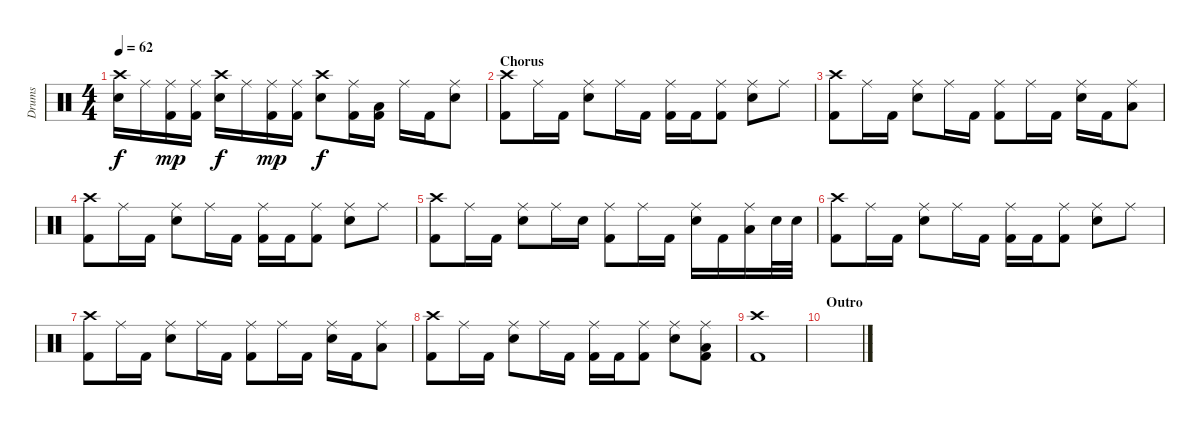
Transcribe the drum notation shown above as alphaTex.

\track ("Drums" "Drums") {instrument percussion}
\staff {score}
\articulation defaults
\ts (4 4)
\tempo 62
\clef neutral
\ks c
("Crash high (hit)" "Snare (hit) 2").16{dy f} "Ride (middle)".16 ("Ride (middle)" "Kick (hit) 2").16{dy mp} ("Ride (middle)" "Kick (hit) 2").16 ("Crash high (hit)" "Snare (hit) 2").16{dy f} "Ride (middle)".16 ("Ride (middle)" "Kick (hit) 2").16{dy mp} ("Ride (middle)" "Kick (hit) 2").16 ("Crash high (hit)" "Snare (hit) 2").8{dy f} ("Ride (middle)" "Kick (hit) 2").16 ("Low Floor Tom (hit)" "Kick (hit) 2").16 "Ride (middle)".16 "Kick (hit) 2".16 ("Ride (middle)" "Snare (hit) 2").8 |
\section ("" "Chorus")
("Crash high (hit)" "Kick (hit) 2").8 "Ride (middle)".16 "Kick (hit) 2".16 ("Ride (middle)" "Snare (hit) 2").8 "Ride (middle)".16 "Kick (hit) 2".16 ("Ride (middle)" "Kick (hit) 2").16 "Kick (hit) 2".16 ("Ride (middle)" "Kick (hit) 2").8 ("Ride (middle)" "Snare (hit) 2").8 "Ride (middle)".8 |
("Crash high (hit)" "Kick (hit) 2").8 "Ride (middle)".16 "Kick (hit) 2".16 ("Ride (middle)" "Snare (hit) 2").8 "Ride (middle)".16 "Kick (hit) 2".16 ("Ride (middle)" "Kick (hit) 2").8 "Ride (middle)".16 "Kick (hit) 2".16 ("Ride (middle)" "Snare (hit) 2").16 "Kick (hit) 2".16 ("Ride (middle)" "Low Floor Tom (hit)").8 |
("Crash high (hit)" "Kick (hit) 2").8 "Ride (middle)".16 "Kick (hit) 2".16 ("Ride (middle)" "Snare (hit) 2").8 "Ride (middle)".16 "Kick (hit) 2".16 ("Ride (middle)" "Kick (hit) 2").16 "Kick (hit) 2".16 ("Ride (middle)" "Kick (hit) 2").8 ("Ride (middle)" "Snare (hit) 2").8 "Ride (middle)".8 |
("Crash high (hit)" "Kick (hit) 2").8 "Ride (middle)".16 "Kick (hit) 2".16 ("Ride (middle)" "Snare (hit) 2").8 "Ride (middle)".16 "Snare (hit) 2".16 ("Ride (middle)" "Kick (hit) 2").8 "Ride (middle)".16 "Kick (hit) 2".16 ("Ride (middle)" "Snare (hit) 2").16 "Kick (hit) 2".16 ("Ride (middle)" "Low Floor Tom (hit)").16 "Snare (hit) 2".32 "Snare (hit) 2".32 |
("Crash high (hit)" "Kick (hit) 2").8 "Ride (middle)".16 "Kick (hit) 2".16 ("Ride (middle)" "Snare (hit) 2").8 "Ride (middle)".16 "Kick (hit) 2".16 ("Ride (middle)" "Kick (hit) 2").16 "Kick (hit) 2".16 ("Ride (middle)" "Kick (hit) 2").8 ("Ride (middle)" "Snare (hit) 2").8 "Ride (middle)".8 |
("Crash high (hit)" "Kick (hit) 2").8 "Ride (middle)".16 "Kick (hit) 2".16 ("Ride (middle)" "Snare (hit) 2").8 "Ride (middle)".16 "Kick (hit) 2".16 ("Ride (middle)" "Kick (hit) 2").8 "Ride (middle)".16 "Kick (hit) 2".16 ("Ride (middle)" "Snare (hit) 2").16 "Kick (hit) 2".16 ("Ride (middle)" "Low Floor Tom (hit)").8 |
("Crash high (hit)" "Kick (hit) 2").8 "Ride (middle)".16 "Kick (hit) 2".16 ("Ride (middle)" "Snare (hit) 2").8 "Ride (middle)".16 "Kick (hit) 2".16 ("Ride (middle)" "Kick (hit) 2").16 "Kick (hit) 2".16 ("Ride (middle)" "Kick (hit) 2").8 ("Ride (middle)" "Snare (hit) 2").8 ("Ride (middle)" "Low Floor Tom (hit)" "Kick (hit) 2").8 |
("Crash high (hit)" "Kick (hit) 2").1 |
\section ("" "Outro")
